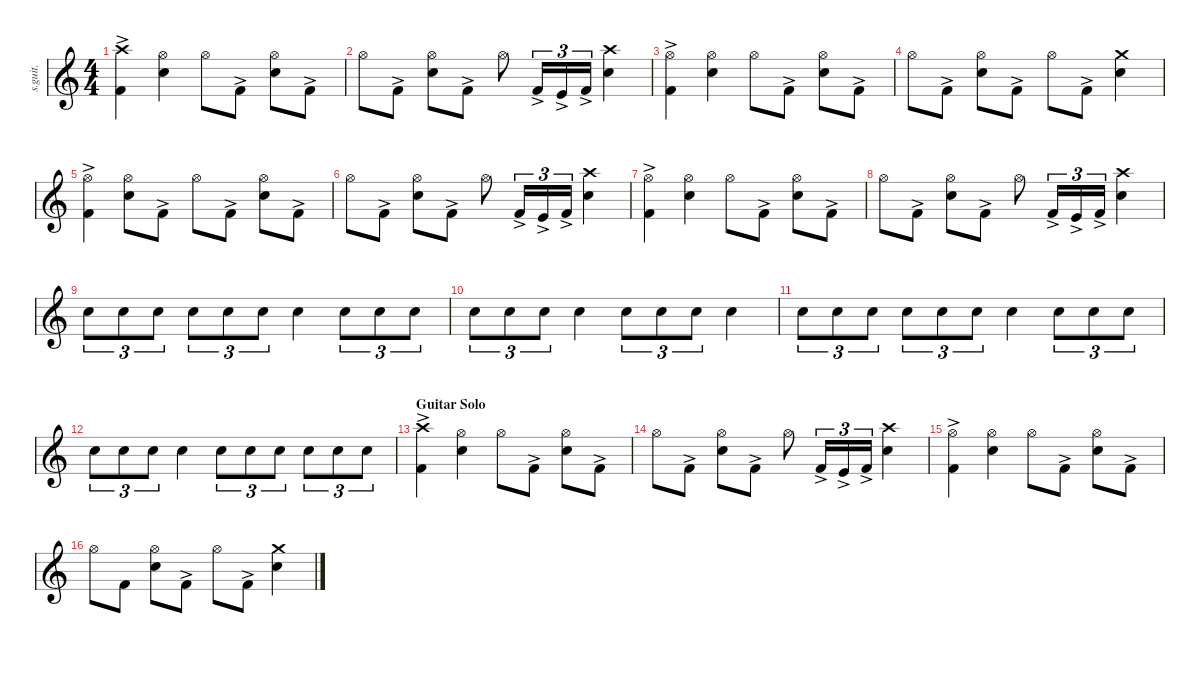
\defaultSystemsLayout 4
\hideDynamics
\bracketExtendMode nobrackets
\track ("Lars Ulrich - Drums" "s.guit.") {instrument percussion}
\staff {score}
\articulation defaults
\ts (4 4)
\tempo (220 hide)
\clef g2
\ks c
("Crash high (hit)" "Kick (hit) 2"{ac}).4{lyrics (0 "") lyrics (1 "") lyrics (2 "") lyrics (3 "") lyrics (4 "") dy f} ("Hi-Hat (open)" "Snare (hit) 2").4{lyrics (0 "") lyrics (1 "") lyrics (2 "") lyrics (3 "") lyrics (4 "")} "Hi-Hat (open)".8{lyrics (0 "") lyrics (1 "") lyrics (2 "") lyrics (3 "") lyrics (4 "")} "Kick (hit) 2"{ac}.8{lyrics (0 "") lyrics (1 "") lyrics (2 "") lyrics (3 "") lyrics (4 "") dy mp} ("Hi-Hat (open)" "Snare (hit) 2").8{lyrics (0 "") lyrics (1 "") lyrics (2 "") lyrics (3 "") lyrics (4 "") dy f} "Kick (hit) 2"{ac}.8{lyrics (0 "") lyrics (1 "") lyrics (2 "") lyrics (3 "") lyrics (4 "") dy mp} |
"Hi-Hat (open)".8{lyrics (0 "") lyrics (1 "") lyrics (2 "") lyrics (3 "") lyrics (4 "") dy f} "Kick (hit) 2"{ac}.8{lyrics (0 "") lyrics (1 "") lyrics (2 "") lyrics (3 "") lyrics (4 "") dy mp} ("Hi-Hat (open)" "Snare (hit) 2").8{lyrics (0 "") lyrics (1 "") lyrics (2 "") lyrics (3 "") lyrics (4 "") dy f} "Kick (hit) 2"{ac}.8{lyrics (0 "") lyrics (1 "") lyrics (2 "") lyrics (3 "") lyrics (4 "") dy mp} "Hi-Hat (open)".8{lyrics (0 "") lyrics (1 "") lyrics (2 "") lyrics (3 "") lyrics (4 "") dy f} "Kick (hit) 2"{ac}.16{tu (3 2) lyrics (0 "") lyrics (1 "") lyrics (2 "") lyrics (3 "") lyrics (4 "") dy mp} "Kick (hit)"{ac}.16{tu (3 2) lyrics (0 "") lyrics (1 "") lyrics (2 "") lyrics (3 "") lyrics (4 "") dy mf} "Kick (hit) 2"{ac}.16{tu (3 2) lyrics (0 "") lyrics (1 "") lyrics (2 "") lyrics (3 "") lyrics (4 "") dy mp} ("Crash high (hit)" "Snare (hit) 2").4{lyrics (0 "") lyrics (1 "") lyrics (2 "") lyrics (3 "") lyrics (4 "") dy f} |
("Hi-Hat (open)" "Kick (hit) 2"{ac}).4{lyrics (0 "") lyrics (1 "") lyrics (2 "") lyrics (3 "") lyrics (4 "")} ("Hi-Hat (open)" "Snare (hit) 2").4{lyrics (0 "") lyrics (1 "") lyrics (2 "") lyrics (3 "") lyrics (4 "")} "Hi-Hat (open)".8{lyrics (0 "") lyrics (1 "") lyrics (2 "") lyrics (3 "") lyrics (4 "")} "Kick (hit) 2"{ac}.8{lyrics (0 "") lyrics (1 "") lyrics (2 "") lyrics (3 "") lyrics (4 "") dy mp} ("Hi-Hat (open)" "Snare (hit) 2").8{lyrics (0 "") lyrics (1 "") lyrics (2 "") lyrics (3 "") lyrics (4 "") dy f} "Kick (hit) 2"{ac}.8{lyrics (0 "") lyrics (1 "") lyrics (2 "") lyrics (3 "") lyrics (4 "") dy mp} |
"Hi-Hat (open)".8{lyrics (0 "") lyrics (1 "") lyrics (2 "") lyrics (3 "") lyrics (4 "") dy f} "Kick (hit) 2"{ac}.8{lyrics (0 "") lyrics (1 "") lyrics (2 "") lyrics (3 "") lyrics (4 "") dy mp} ("Hi-Hat (open)" "Snare (hit) 2").8{lyrics (0 "") lyrics (1 "") lyrics (2 "") lyrics (3 "") lyrics (4 "") dy f} "Kick (hit) 2"{ac}.8{lyrics (0 "") lyrics (1 "") lyrics (2 "") lyrics (3 "") lyrics (4 "") dy mp} "Hi-Hat (open)".8{lyrics (0 "") lyrics (1 "") lyrics (2 "") lyrics (3 "") lyrics (4 "") dy f} "Kick (hit) 2"{ac}.8{lyrics (0 "") lyrics (1 "") lyrics (2 "") lyrics (3 "") lyrics (4 "") dy mp} ("Crash medium (hit)" "Snare (hit) 2").4{lyrics (0 "") lyrics (1 "") lyrics (2 "") lyrics (3 "") lyrics (4 "") dy f} |
("Hi-Hat (open)" "Kick (hit) 2"{ac}).4{lyrics (0 "") lyrics (1 "") lyrics (2 "") lyrics (3 "") lyrics (4 "")} ("Hi-Hat (open)" "Snare (hit) 2").8{lyrics (0 "") lyrics (1 "") lyrics (2 "") lyrics (3 "") lyrics (4 "")} "Kick (hit) 2"{ac}.8{lyrics (0 "") lyrics (1 "") lyrics (2 "") lyrics (3 "") lyrics (4 "") dy mp} "Hi-Hat (open)".8{lyrics (0 "") lyrics (1 "") lyrics (2 "") lyrics (3 "") lyrics (4 "") dy f} "Kick (hit) 2"{ac}.8{lyrics (0 "") lyrics (1 "") lyrics (2 "") lyrics (3 "") lyrics (4 "") dy mp} ("Hi-Hat (open)" "Snare (hit) 2").8{lyrics (0 "") lyrics (1 "") lyrics (2 "") lyrics (3 "") lyrics (4 "") dy f} "Kick (hit) 2"{ac}.8{lyrics (0 "") lyrics (1 "") lyrics (2 "") lyrics (3 "") lyrics (4 "") dy mp} |
"Hi-Hat (open)".8{lyrics (0 "") lyrics (1 "") lyrics (2 "") lyrics (3 "") lyrics (4 "") dy f} "Kick (hit) 2"{ac}.8{lyrics (0 "") lyrics (1 "") lyrics (2 "") lyrics (3 "") lyrics (4 "") dy mp} ("Hi-Hat (open)" "Snare (hit) 2").8{lyrics (0 "") lyrics (1 "") lyrics (2 "") lyrics (3 "") lyrics (4 "") dy f} "Kick (hit) 2"{ac}.8{lyrics (0 "") lyrics (1 "") lyrics (2 "") lyrics (3 "") lyrics (4 "") dy mp} "Hi-Hat (open)".8{lyrics (0 "") lyrics (1 "") lyrics (2 "") lyrics (3 "") lyrics (4 "") dy f} "Kick (hit) 2"{ac}.16{tu (3 2) lyrics (0 "") lyrics (1 "") lyrics (2 "") lyrics (3 "") lyrics (4 "") dy mp} "Kick (hit)"{ac}.16{tu (3 2) lyrics (0 "") lyrics (1 "") lyrics (2 "") lyrics (3 "") lyrics (4 "") dy mf} "Kick (hit) 2"{ac}.16{tu (3 2) lyrics (0 "") lyrics (1 "") lyrics (2 "") lyrics (3 "") lyrics (4 "") dy mp} ("Crash high (hit)" "Snare (hit) 2").4{lyrics (0 "") lyrics (1 "") lyrics (2 "") lyrics (3 "") lyrics (4 "") dy f} |
("Hi-Hat (open)" "Kick (hit) 2"{ac}).4{lyrics (0 "") lyrics (1 "") lyrics (2 "") lyrics (3 "") lyrics (4 "")} ("Hi-Hat (open)" "Snare (hit) 2").4{lyrics (0 "") lyrics (1 "") lyrics (2 "") lyrics (3 "") lyrics (4 "")} "Hi-Hat (open)".8{lyrics (0 "") lyrics (1 "") lyrics (2 "") lyrics (3 "") lyrics (4 "")} "Kick (hit) 2"{ac}.8{lyrics (0 "") lyrics (1 "") lyrics (2 "") lyrics (3 "") lyrics (4 "") dy mp} ("Hi-Hat (open)" "Snare (hit) 2").8{lyrics (0 "") lyrics (1 "") lyrics (2 "") lyrics (3 "") lyrics (4 "") dy f} "Kick (hit) 2"{ac}.8{lyrics (0 "") lyrics (1 "") lyrics (2 "") lyrics (3 "") lyrics (4 "") dy mp} |
"Hi-Hat (open)".8{lyrics (0 "") lyrics (1 "") lyrics (2 "") lyrics (3 "") lyrics (4 "") dy f} "Kick (hit) 2"{ac}.8{lyrics (0 "") lyrics (1 "") lyrics (2 "") lyrics (3 "") lyrics (4 "") dy mp} ("Hi-Hat (open)" "Snare (hit) 2").8{lyrics (0 "") lyrics (1 "") lyrics (2 "") lyrics (3 "") lyrics (4 "") dy f} "Kick (hit) 2"{ac}.8{lyrics (0 "") lyrics (1 "") lyrics (2 "") lyrics (3 "") lyrics (4 "") dy mp} "Hi-Hat (open)".8{lyrics (0 "") lyrics (1 "") lyrics (2 "") lyrics (3 "") lyrics (4 "") dy f} "Kick (hit) 2"{ac}.16{tu (3 2) lyrics (0 "") lyrics (1 "") lyrics (2 "") lyrics (3 "") lyrics (4 "") dy mp} "Kick (hit)"{ac}.16{tu (3 2) lyrics (0 "") lyrics (1 "") lyrics (2 "") lyrics (3 "") lyrics (4 "") dy mf} "Kick (hit) 2"{ac}.16{tu (3 2) lyrics (0 "") lyrics (1 "") lyrics (2 "") lyrics (3 "") lyrics (4 "") dy mp} ("Crash high (hit)" "Snare (hit) 2").4{lyrics (0 "") lyrics (1 "") lyrics (2 "") lyrics (3 "") lyrics (4 "") dy f} |
"Snare (hit) 2".8{tu (3 2) lyrics (0 "") lyrics (1 "") lyrics (2 "") lyrics (3 "") lyrics (4 "")} "Snare (hit) 2".8{tu (3 2) lyrics (0 "") lyrics (1 "") lyrics (2 "") lyrics (3 "") lyrics (4 "")} "Snare (hit) 2".8{tu (3 2) lyrics (0 "") lyrics (1 "") lyrics (2 "") lyrics (3 "") lyrics (4 "")} "Snare (hit) 2".8{tu (3 2) lyrics (0 "") lyrics (1 "") lyrics (2 "") lyrics (3 "") lyrics (4 "")} "Snare (hit) 2".8{tu (3 2) lyrics (0 "") lyrics (1 "") lyrics (2 "") lyrics (3 "") lyrics (4 "")} "Snare (hit) 2".8{tu (3 2) lyrics (0 "") lyrics (1 "") lyrics (2 "") lyrics (3 "") lyrics (4 "")} "Snare (hit) 2".4{lyrics (0 "") lyrics (1 "") lyrics (2 "") lyrics (3 "") lyrics (4 "")} "Snare (hit) 2".8{tu (3 2) lyrics (0 "") lyrics (1 "") lyrics (2 "") lyrics (3 "") lyrics (4 "")} "Snare (hit) 2".8{tu (3 2) lyrics (0 "") lyrics (1 "") lyrics (2 "") lyrics (3 "") lyrics (4 "")} "Snare (hit) 2".8{tu (3 2) lyrics (0 "") lyrics (1 "") lyrics (2 "") lyrics (3 "") lyrics (4 "")} |
"Snare (hit) 2".8{tu (3 2) lyrics (0 "") lyrics (1 "") lyrics (2 "") lyrics (3 "") lyrics (4 "")} "Snare (hit) 2".8{tu (3 2) lyrics (0 "") lyrics (1 "") lyrics (2 "") lyrics (3 "") lyrics (4 "")} "Snare (hit) 2".8{tu (3 2) lyrics (0 "") lyrics (1 "") lyrics (2 "") lyrics (3 "") lyrics (4 "")} "Snare (hit) 2".4{lyrics (0 "") lyrics (1 "") lyrics (2 "") lyrics (3 "") lyrics (4 "")} "Snare (hit) 2".8{tu (3 2) lyrics (0 "") lyrics (1 "") lyrics (2 "") lyrics (3 "") lyrics (4 "")} "Snare (hit) 2".8{tu (3 2) lyrics (0 "") lyrics (1 "") lyrics (2 "") lyrics (3 "") lyrics (4 "")} "Snare (hit) 2".8{tu (3 2) lyrics (0 "") lyrics (1 "") lyrics (2 "") lyrics (3 "") lyrics (4 "")} "Snare (hit) 2".4{lyrics (0 "") lyrics (1 "") lyrics (2 "") lyrics (3 "") lyrics (4 "")} |
"Snare (hit) 2".8{tu (3 2) lyrics (0 "") lyrics (1 "") lyrics (2 "") lyrics (3 "") lyrics (4 "")} "Snare (hit) 2".8{tu (3 2) lyrics (0 "") lyrics (1 "") lyrics (2 "") lyrics (3 "") lyrics (4 "")} "Snare (hit) 2".8{tu (3 2) lyrics (0 "") lyrics (1 "") lyrics (2 "") lyrics (3 "") lyrics (4 "")} "Snare (hit) 2".8{tu (3 2) lyrics (0 "") lyrics (1 "") lyrics (2 "") lyrics (3 "") lyrics (4 "")} "Snare (hit) 2".8{tu (3 2) lyrics (0 "") lyrics (1 "") lyrics (2 "") lyrics (3 "") lyrics (4 "")} "Snare (hit) 2".8{tu (3 2) lyrics (0 "") lyrics (1 "") lyrics (2 "") lyrics (3 "") lyrics (4 "")} "Snare (hit) 2".4{lyrics (0 "") lyrics (1 "") lyrics (2 "") lyrics (3 "") lyrics (4 "")} "Snare (hit) 2".8{tu (3 2) lyrics (0 "") lyrics (1 "") lyrics (2 "") lyrics (3 "") lyrics (4 "")} "Snare (hit) 2".8{tu (3 2) lyrics (0 "") lyrics (1 "") lyrics (2 "") lyrics (3 "") lyrics (4 "")} "Snare (hit) 2".8{tu (3 2) lyrics (0 "") lyrics (1 "") lyrics (2 "") lyrics (3 "") lyrics (4 "")} |
"Snare (hit) 2".8{tu (3 2) lyrics (0 "") lyrics (1 "") lyrics (2 "") lyrics (3 "") lyrics (4 "")} "Snare (hit) 2".8{tu (3 2) lyrics (0 "") lyrics (1 "") lyrics (2 "") lyrics (3 "") lyrics (4 "")} "Snare (hit) 2".8{tu (3 2) lyrics (0 "") lyrics (1 "") lyrics (2 "") lyrics (3 "") lyrics (4 "")} "Snare (hit) 2".4{lyrics (0 "") lyrics (1 "") lyrics (2 "") lyrics (3 "") lyrics (4 "")} "Snare (hit) 2".8{tu (3 2) lyrics (0 "") lyrics (1 "") lyrics (2 "") lyrics (3 "") lyrics (4 "")} "Snare (hit) 2".8{tu (3 2) lyrics (0 "") lyrics (1 "") lyrics (2 "") lyrics (3 "") lyrics (4 "")} "Snare (hit) 2".8{tu (3 2) lyrics (0 "") lyrics (1 "") lyrics (2 "") lyrics (3 "") lyrics (4 "")} "Snare (hit) 2".8{tu (3 2) lyrics (0 "") lyrics (1 "") lyrics (2 "") lyrics (3 "") lyrics (4 "")} "Snare (hit) 2".8{tu (3 2) lyrics (0 "") lyrics (1 "") lyrics (2 "") lyrics (3 "") lyrics (4 "")} "Snare (hit) 2".8{tu (3 2) lyrics (0 "") lyrics (1 "") lyrics (2 "") lyrics (3 "") lyrics (4 "")} |
\section ("" "Guitar Solo")
("Crash high (hit)" "Kick (hit) 2"{ac}).4{lyrics (0 "") lyrics (1 "") lyrics (2 "") lyrics (3 "") lyrics (4 "")} ("Hi-Hat (open)" "Snare (hit) 2").4{lyrics (0 "") lyrics (1 "") lyrics (2 "") lyrics (3 "") lyrics (4 "")} "Hi-Hat (open)".8{lyrics (0 "") lyrics (1 "") lyrics (2 "") lyrics (3 "") lyrics (4 "")} "Kick (hit) 2"{ac}.8{lyrics (0 "") lyrics (1 "") lyrics (2 "") lyrics (3 "") lyrics (4 "") dy mp} ("Hi-Hat (open)" "Snare (hit) 2").8{lyrics (0 "") lyrics (1 "") lyrics (2 "") lyrics (3 "") lyrics (4 "") dy f} "Kick (hit) 2"{ac}.8{lyrics (0 "") lyrics (1 "") lyrics (2 "") lyrics (3 "") lyrics (4 "") dy mp} |
"Hi-Hat (open)".8{lyrics (0 "") lyrics (1 "") lyrics (2 "") lyrics (3 "") lyrics (4 "") dy f} "Kick (hit) 2"{ac}.8{lyrics (0 "") lyrics (1 "") lyrics (2 "") lyrics (3 "") lyrics (4 "") dy mp} ("Hi-Hat (open)" "Snare (hit) 2").8{lyrics (0 "") lyrics (1 "") lyrics (2 "") lyrics (3 "") lyrics (4 "") dy f} "Kick (hit) 2"{ac}.8{lyrics (0 "") lyrics (1 "") lyrics (2 "") lyrics (3 "") lyrics (4 "") dy mp} "Hi-Hat (open)".8{lyrics (0 "") lyrics (1 "") lyrics (2 "") lyrics (3 "") lyrics (4 "") dy f} "Kick (hit) 2"{ac}.16{tu (3 2) lyrics (0 "") lyrics (1 "") lyrics (2 "") lyrics (3 "") lyrics (4 "") dy mp} "Kick (hit)"{ac}.16{tu (3 2) lyrics (0 "") lyrics (1 "") lyrics (2 "") lyrics (3 "") lyrics (4 "") dy mf} "Kick (hit) 2"{ac}.16{tu (3 2) lyrics (0 "") lyrics (1 "") lyrics (2 "") lyrics (3 "") lyrics (4 "") dy mp} ("Crash high (hit)" "Snare (hit) 2").4{lyrics (0 "") lyrics (1 "") lyrics (2 "") lyrics (3 "") lyrics (4 "") dy f} |
("Hi-Hat (open)" "Kick (hit) 2"{ac}).4{lyrics (0 "") lyrics (1 "") lyrics (2 "") lyrics (3 "") lyrics (4 "")} ("Hi-Hat (open)" "Snare (hit) 2").4{lyrics (0 "") lyrics (1 "") lyrics (2 "") lyrics (3 "") lyrics (4 "")} "Hi-Hat (open)".8{lyrics (0 "") lyrics (1 "") lyrics (2 "") lyrics (3 "") lyrics (4 "")} "Kick (hit) 2"{ac}.8{lyrics (0 "") lyrics (1 "") lyrics (2 "") lyrics (3 "") lyrics (4 "") dy mp} ("Hi-Hat (open)" "Snare (hit) 2").8{lyrics (0 "") lyrics (1 "") lyrics (2 "") lyrics (3 "") lyrics (4 "") dy f} "Kick (hit) 2"{ac}.8{lyrics (0 "") lyrics (1 "") lyrics (2 "") lyrics (3 "") lyrics (4 "") dy mp} |
"Hi-Hat (open)".8{lyrics (0 "") lyrics (1 "") lyrics (2 "") lyrics (3 "") lyrics (4 "") dy f} "Kick (hit) 2".8{lyrics (0 "") lyrics (1 "") lyrics (2 "") lyrics (3 "") lyrics (4 "")} ("Hi-Hat (open)" "Snare (hit) 2").8{lyrics (0 "") lyrics (1 "") lyrics (2 "") lyrics (3 "") lyrics (4 "")} "Kick (hit) 2"{ac}.8{lyrics (0 "") lyrics (1 "") lyrics (2 "") lyrics (3 "") lyrics (4 "") dy mp} "Hi-Hat (open)".8{lyrics (0 "") lyrics (1 "") lyrics (2 "") lyrics (3 "") lyrics (4 "") dy f} "Kick (hit) 2"{ac}.8{lyrics (0 "") lyrics (1 "") lyrics (2 "") lyrics (3 "") lyrics (4 "") dy mp} ("Crash medium (hit)" "Snare (hit) 2").4{lyrics (0 "") lyrics (1 "") lyrics (2 "") lyrics (3 "") lyrics (4 "") dy f}
